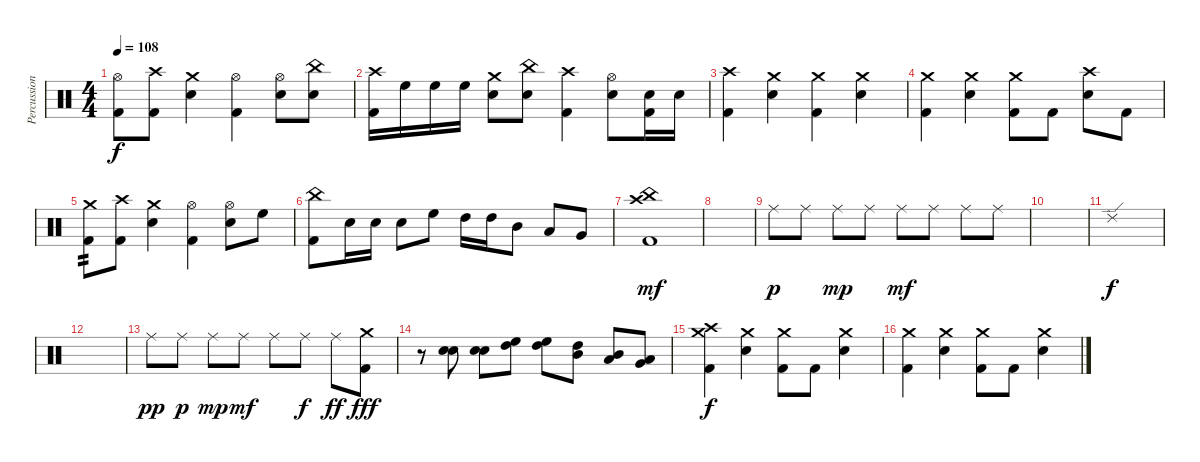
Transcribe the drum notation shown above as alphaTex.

\track ("Percussions" "Percussion") {instrument percussion}
\staff {score}
\articulation defaults
\ts (4 4)
\tempo 108
\clef neutral
\ks c
("Hi-Hat (open)" "Kick (hit) 2").8{dy f} ("Crash high (hit)" "Kick (hit) 2").8 ("Crash medium (hit)" "Electric Snare (hit)").4 ("Hi-Hat (open)" "Kick (hit) 2").4 ("Hi-Hat (open)" "Electric Snare (hit)").8 ("China (hit)" "Electric Snare (hit)").8 |
("Crash high (hit)" "Kick (hit) 2").16 "High Floor Tom (hit)".16 "High Floor Tom (hit)".16 "High Floor Tom (hit)".16 ("Crash medium (hit)" "Electric Snare (hit)").8 ("China (hit)" "Electric Snare (hit)").8 ("Crash high (hit)" "Kick (hit) 2").4 ("Hi-Hat (open)" "Electric Snare (hit)").8 ("Electric Snare (hit)" "Kick (hit) 2").16 "Electric Snare (hit)".16 |
("Crash high (hit)" "Kick (hit) 2").4 ("Crash medium (hit)" "Electric Snare (hit)").4 ("Crash medium (hit)" "Kick (hit) 2").4 ("Crash medium (hit)" "Electric Snare (hit)").4 |
("Crash medium (hit)" "Kick (hit) 2").4 ("Crash medium (hit)" "Electric Snare (hit)").4 ("Crash medium (hit)" "Kick (hit) 2").8 "Kick (hit) 2".8 ("Crash high (hit)" "Electric Snare (hit)").8 "Kick (hit) 2".8 |
("Crash medium (hit)" "Kick (hit) 2").8{tp 2} ("Crash high (hit)" "Kick (hit) 2").8 ("Crash medium (hit)" "Electric Snare (hit)").4 ("Hi-Hat (open)" "Kick (hit) 2").4 ("Hi-Hat (open)" "Electric Snare (hit)").8 "High Floor Tom (hit)".8 |
("China (hit)" "Kick (hit) 2").8 "Electric Snare (hit)".16 "Electric Snare (hit)".16 "Electric Snare (hit)".8 "High Floor Tom (hit)".8 "High Tom (hit)".16 "High Tom (hit)".16 "Mid Tom (hit)".8 "Low Tom (hit)".8 "Very Low Tom (hit)".8 |
("Crash high (hit)" "China (hit)" "Kick (hit) 2").1{dy mf} |
|
"Ride (middle)".8{dy p} "Ride (middle)".8 "Ride (middle)".8{dy mp} "Ride (middle)".8 "Ride (middle)".8{dy mf} "Ride (middle)".8 "Ride (middle)".8 "Ride (middle)".8 |
|
"Ride (edge) 2".1{dy f} |
|
"Ride (middle)".8{dy pp} "Ride (middle)".8{dy p} "Ride (middle)".8{dy mp} "Ride (middle)".8{dy mf} "Ride (middle)".8 "Ride (middle)".8{dy f} "Ride (middle)".8{dy ff} ("Crash medium (hit)" "Kick (hit) 2").8{dy fff} |
r.8 ("Electric Snare (hit)" "Electric Snare (hit)").8 ("Electric Snare (hit)" "Electric Snare (hit)").8 ("High Floor Tom (hit)" "High Tom (hit)").8 ("High Floor Tom (hit)" "High Tom (hit)").8 ("High Tom (hit)" "Mid Tom (hit)").8 ("Mid Tom (hit)" "Low Tom (hit)").8 ("Low Tom (hit)" "Very Low Tom (hit)").8 |
("Crash high (hit)" "Crash medium (hit)" "Kick (hit) 2").4{dy f} ("Crash medium (hit)" "Electric Snare (hit)").4 ("Crash medium (hit)" "Kick (hit) 2").8 "Kick (hit) 2".8 ("Crash medium (hit)" "Electric Snare (hit)").4 |
("Crash medium (hit)" "Kick (hit) 2").4 ("Crash medium (hit)" "Electric Snare (hit)").4 ("Crash medium (hit)" "Kick (hit) 2").8 "Kick (hit) 2".8 ("Crash medium (hit)" "Electric Snare (hit)").4
